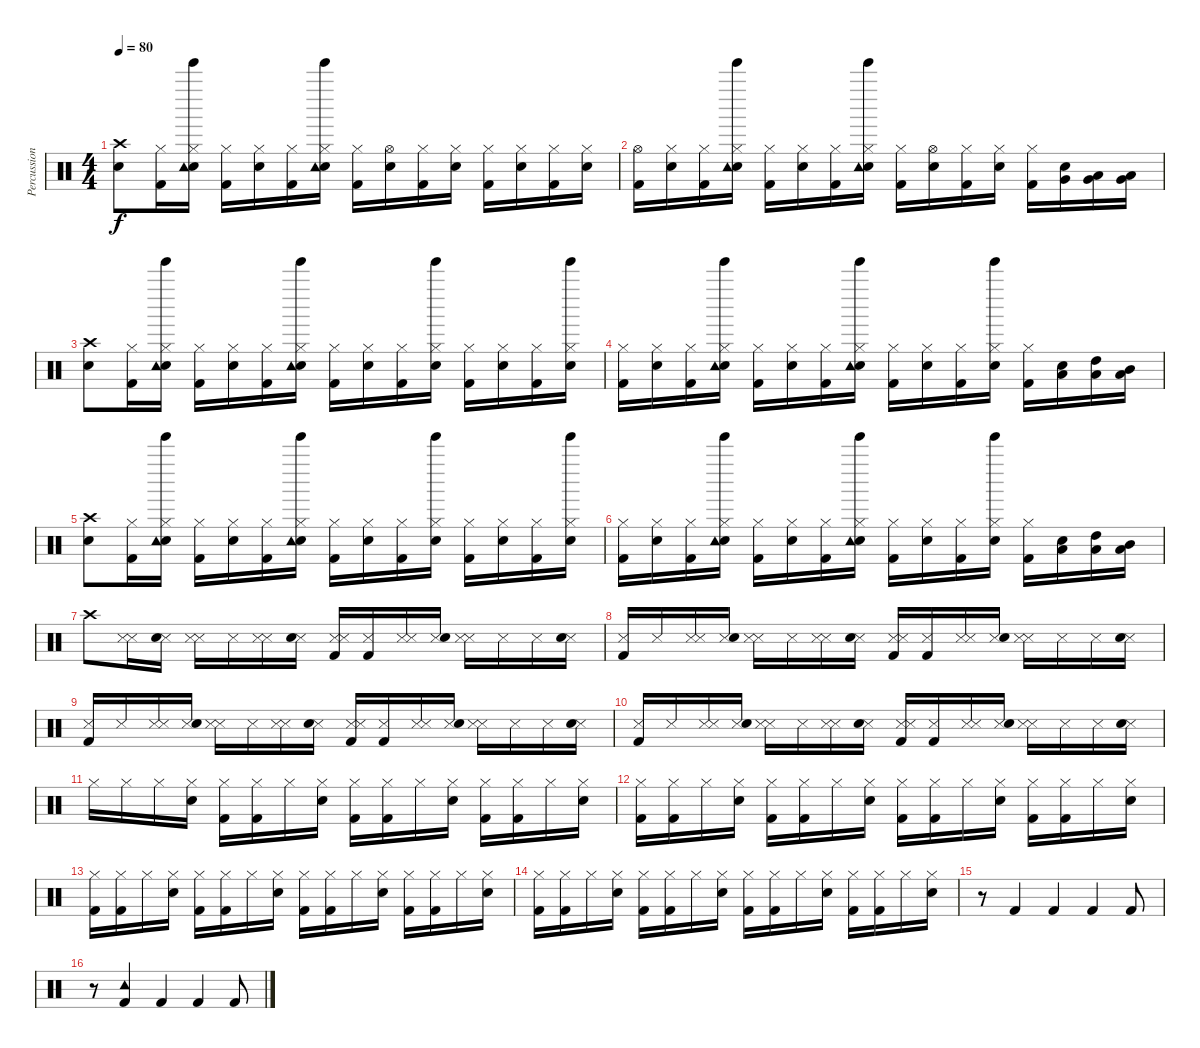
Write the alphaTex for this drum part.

\track ("Percussion" "Percussion") {instrument percussion}
\staff {score}
\articulation defaults
\ts (4 4)
\tempo 80
\clef neutral
\ks c
("Crash high (hit)" "Snare (hit) 2").8{dy f} ("Kick (hit) 2" "Hi-Hat (closed)").16 ("Snare (hit) 2" "Hi-Hat (closed)" "Tambourine (hit)" "Tinkle Bell (hit)").16 ("Kick (hit) 2" "Hi-Hat (closed)").16 ("Snare (hit) 2" "Hi-Hat (closed)").16 ("Kick (hit) 2" "Hi-Hat (closed)").16 ("Snare (hit) 2" "Hi-Hat (closed)" "Tambourine (hit)" "Tinkle Bell (hit)").16 ("Kick (hit) 2" "Hi-Hat (closed)").16 ("Snare (hit) 2" "Hi-Hat (open)").16 ("Kick (hit) 2" "Hi-Hat (closed)").16 ("Snare (hit) 2" "Hi-Hat (closed)").16 ("Kick (hit) 2" "Hi-Hat (closed)").16 ("Snare (hit) 2" "Hi-Hat (closed)").16 ("Kick (hit) 2" "Hi-Hat (closed)").16 ("Snare (hit) 2" "Hi-Hat (closed)").16 |
("Kick (hit) 2" "Hi-Hat (open)").16 ("Hi-Hat (closed)" "Snare (hit) 2").16 ("Kick (hit) 2" "Hi-Hat (closed)").16 ("Snare (hit) 2" "Hi-Hat (closed)" "Tambourine (hit)" "Tinkle Bell (hit)").16 ("Kick (hit) 2" "Hi-Hat (closed)").16 ("Snare (hit) 2" "Hi-Hat (closed)").16 ("Kick (hit) 2" "Hi-Hat (closed)").16 ("Snare (hit) 2" "Hi-Hat (closed)" "Tambourine (hit)" "Tinkle Bell (hit)").16 ("Kick (hit) 2" "Hi-Hat (closed)").16 ("Snare (hit) 2" "Hi-Hat (open)").16 ("Kick (hit) 2" "Hi-Hat (closed)").16 ("Snare (hit) 2" "Hi-Hat (closed)").16 ("Kick (hit) 2" "Hi-Hat (closed)").16 ("Snare (hit) 2" "Very Low Tom (hit)").16 ("Low Floor Tom (hit)" "Very Low Tom (hit)").16 ("Low Floor Tom (hit)" "Very Low Tom (hit)").16 |
("Crash high (hit)" "Snare (hit) 2").8 ("Kick (hit) 2" "Hi-Hat (closed)").16 ("Snare (hit) 2" "Hi-Hat (closed)" "Tambourine (hit)" "Tinkle Bell (hit)").16 ("Kick (hit) 2" "Hi-Hat (closed)").16 ("Snare (hit) 2" "Hi-Hat (closed)").16 ("Kick (hit) 2" "Hi-Hat (closed)").16 ("Snare (hit) 2" "Hi-Hat (closed)" "Tambourine (hit)" "Tinkle Bell (hit)").16 ("Kick (hit) 2" "Hi-Hat (closed)").16 ("Snare (hit) 2" "Hi-Hat (closed)").16 ("Kick (hit) 2" "Hi-Hat (closed)").16 ("Snare (hit) 2" "Hi-Hat (closed)" "Tinkle Bell (hit)").16 ("Kick (hit) 2" "Hi-Hat (closed)").16 ("Snare (hit) 2" "Hi-Hat (closed)").16 ("Kick (hit) 2" "Hi-Hat (closed)").16 ("Snare (hit) 2" "Hi-Hat (closed)" "Tinkle Bell (hit)").16 |
("Kick (hit) 2" "Hi-Hat (closed)").16 ("Hi-Hat (closed)" "Snare (hit) 2").16 ("Kick (hit) 2" "Hi-Hat (closed)").16 ("Snare (hit) 2" "Hi-Hat (closed)" "Tambourine (hit)" "Tinkle Bell (hit)").16 ("Kick (hit) 2" "Hi-Hat (closed)").16 ("Snare (hit) 2" "Hi-Hat (closed)").16 ("Kick (hit) 2" "Hi-Hat (closed)").16 ("Snare (hit) 2" "Hi-Hat (closed)" "Tambourine (hit)" "Tinkle Bell (hit)").16 ("Kick (hit) 2" "Hi-Hat (closed)").16 ("Snare (hit) 2" "Hi-Hat (closed)").16 ("Kick (hit) 2" "Hi-Hat (closed)").16 ("Snare (hit) 2" "Hi-Hat (closed)" "Tinkle Bell (hit)").16 ("Kick (hit) 2" "Hi-Hat (closed)").16 ("Snare (hit) 2" "Low Floor Tom (hit)").16 ("Low Floor Tom (hit)" "High Tom (hit)").16 ("Low Floor Tom (hit)" "Mid Tom (hit)").16 |
("Crash high (hit)" "Snare (hit) 2").8 ("Kick (hit) 2" "Hi-Hat (closed)").16 ("Snare (hit) 2" "Hi-Hat (closed)" "Tambourine (hit)" "Tinkle Bell (hit)").16 ("Kick (hit) 2" "Hi-Hat (closed)").16 ("Snare (hit) 2" "Hi-Hat (closed)").16 ("Kick (hit) 2" "Hi-Hat (closed)").16 ("Snare (hit) 2" "Hi-Hat (closed)" "Tambourine (hit)" "Tinkle Bell (hit)").16 ("Kick (hit) 2" "Hi-Hat (closed)").16 ("Snare (hit) 2" "Hi-Hat (closed)").16 ("Kick (hit) 2" "Hi-Hat (closed)").16 ("Snare (hit) 2" "Hi-Hat (closed)" "Tinkle Bell (hit)").16 ("Kick (hit) 2" "Hi-Hat (closed)").16 ("Snare (hit) 2" "Hi-Hat (closed)").16 ("Kick (hit) 2" "Hi-Hat (closed)").16 ("Snare (hit) 2" "Hi-Hat (closed)" "Tinkle Bell (hit)").16 |
("Kick (hit) 2" "Hi-Hat (closed)").16 ("Hi-Hat (closed)" "Snare (hit) 2").16 ("Kick (hit) 2" "Hi-Hat (closed)").16 ("Snare (hit) 2" "Hi-Hat (closed)" "Tambourine (hit)" "Tinkle Bell (hit)").16 ("Kick (hit) 2" "Hi-Hat (closed)").16 ("Snare (hit) 2" "Hi-Hat (closed)").16 ("Kick (hit) 2" "Hi-Hat (closed)").16 ("Snare (hit) 2" "Hi-Hat (closed)" "Tambourine (hit)" "Tinkle Bell (hit)").16 ("Kick (hit) 2" "Hi-Hat (closed)").16 ("Snare (hit) 2" "Hi-Hat (closed)").16 ("Kick (hit) 2" "Hi-Hat (closed)").16 ("Snare (hit) 2" "Hi-Hat (closed)" "Tinkle Bell (hit)").16 ("Kick (hit) 2" "Hi-Hat (closed)").16 ("Snare (hit) 2" "Low Floor Tom (hit)").16 ("Low Floor Tom (hit)" "High Tom (hit)").16 ("Low Floor Tom (hit)" "Mid Tom (hit)").16 |
"Crash high (hit)".8 ("Snare (side stick) 3" "Snare (side stick) 3").16 ("Snare (side stick) 3" "Snare (hit) 2").16 ("Snare (side stick) 3" "Snare (side stick) 3").16 "Snare (side stick) 3".16 ("Snare (side stick) 3" "Snare (side stick) 3").16 ("Snare (side stick) 3" "Snare (hit) 2").16 ("Kick (hit) 2" "Snare (side stick) 3" "Snare (side stick) 3").16 ("Kick (hit) 2" "Snare (side stick) 3").16 ("Snare (side stick) 3" "Snare (side stick) 3").16 ("Snare (side stick) 3" "Snare (hit) 2").16 ("Snare (side stick) 3" "Snare (side stick) 3").16 "Snare (side stick) 3".16 "Snare (side stick) 3".16 ("Snare (side stick) 3" "Snare (hit) 2").16 |
("Kick (hit) 2" "Snare (side stick) 3").16 "Snare (side stick) 3".16 ("Snare (side stick) 3" "Snare (side stick) 3").16 ("Snare (side stick) 3" "Snare (hit) 2").16 ("Snare (side stick) 3" "Snare (side stick) 3").16 "Snare (side stick) 3".16 ("Snare (side stick) 3" "Snare (side stick) 3").16 ("Snare (side stick) 3" "Snare (hit) 2").16 ("Kick (hit) 2" "Snare (side stick) 3" "Snare (side stick) 3").16 ("Kick (hit) 2" "Snare (side stick) 3").16 ("Snare (side stick) 3" "Snare (side stick) 3").16 ("Snare (side stick) 3" "Snare (hit) 2").16 ("Snare (side stick) 3" "Snare (side stick) 3").16 "Snare (side stick) 3".16 "Snare (side stick) 3".16 ("Snare (side stick) 3" "Snare (hit) 2").16 |
("Kick (hit) 2" "Snare (side stick) 3").16 "Snare (side stick) 3".16 ("Snare (side stick) 3" "Snare (side stick) 3").16 ("Snare (side stick) 3" "Snare (hit) 2").16 ("Snare (side stick) 3" "Snare (side stick) 3").16 "Snare (side stick) 3".16 ("Snare (side stick) 3" "Snare (side stick) 3").16 ("Snare (side stick) 3" "Snare (hit) 2").16 ("Kick (hit) 2" "Snare (side stick) 3" "Snare (side stick) 3").16 ("Kick (hit) 2" "Snare (side stick) 3").16 ("Snare (side stick) 3" "Snare (side stick) 3").16 ("Snare (side stick) 3" "Snare (hit) 2").16 ("Snare (side stick) 3" "Snare (side stick) 3").16 "Snare (side stick) 3".16 "Snare (side stick) 3".16 ("Snare (side stick) 3" "Snare (hit) 2").16 |
("Kick (hit) 2" "Snare (side stick) 3").16 "Snare (side stick) 3".16 ("Snare (side stick) 3" "Snare (side stick) 3").16 ("Snare (side stick) 3" "Snare (hit) 2").16 ("Snare (side stick) 3" "Snare (side stick) 3").16 "Snare (side stick) 3".16 ("Snare (side stick) 3" "Snare (side stick) 3").16 ("Snare (side stick) 3" "Snare (hit) 2").16 ("Kick (hit) 2" "Snare (side stick) 3" "Snare (side stick) 3").16 ("Kick (hit) 2" "Snare (side stick) 3").16 ("Snare (side stick) 3" "Snare (side stick) 3").16 ("Snare (side stick) 3" "Snare (hit) 2").16 ("Snare (side stick) 3" "Snare (side stick) 3").16 "Snare (side stick) 3".16 "Snare (side stick) 3".16 ("Snare (side stick) 3" "Snare (hit) 2").16 |
"Hi-Hat (closed)".16 "Hi-Hat (closed)".16 "Hi-Hat (closed)".16 ("Hi-Hat (closed)" "Snare (hit) 2").16 ("Kick (hit) 2" "Hi-Hat (closed)").16 ("Kick (hit) 2" "Hi-Hat (closed)").16 "Hi-Hat (closed)".16 ("Hi-Hat (closed)" "Snare (hit) 2").16 ("Kick (hit) 2" "Hi-Hat (closed)").16 ("Kick (hit) 2" "Hi-Hat (closed)").16 "Hi-Hat (closed)".16 ("Hi-Hat (closed)" "Snare (hit) 2").16 ("Kick (hit) 2" "Hi-Hat (closed)").16 ("Kick (hit) 2" "Hi-Hat (closed)").16 "Hi-Hat (closed)".16 ("Hi-Hat (closed)" "Snare (hit) 2").16 |
("Kick (hit) 2" "Hi-Hat (closed)").16 ("Kick (hit) 2" "Hi-Hat (closed)").16 "Hi-Hat (closed)".16 ("Hi-Hat (closed)" "Snare (hit) 2").16 ("Kick (hit) 2" "Hi-Hat (closed)").16 ("Kick (hit) 2" "Hi-Hat (closed)").16 "Hi-Hat (closed)".16 ("Hi-Hat (closed)" "Snare (hit) 2").16 ("Kick (hit) 2" "Hi-Hat (closed)").16 ("Kick (hit) 2" "Hi-Hat (closed)").16 "Hi-Hat (closed)".16 ("Hi-Hat (closed)" "Snare (hit) 2").16 ("Kick (hit) 2" "Hi-Hat (closed)").16 ("Kick (hit) 2" "Hi-Hat (closed)").16 "Hi-Hat (closed)".16 ("Hi-Hat (closed)" "Snare (hit) 2").16 |
("Kick (hit) 2" "Hi-Hat (closed)").16 ("Kick (hit) 2" "Hi-Hat (closed)").16 "Hi-Hat (closed)".16 ("Hi-Hat (closed)" "Snare (hit) 2").16 ("Kick (hit) 2" "Hi-Hat (closed)").16 ("Kick (hit) 2" "Hi-Hat (closed)").16 "Hi-Hat (closed)".16 ("Hi-Hat (closed)" "Snare (hit) 2").16 ("Kick (hit) 2" "Hi-Hat (closed)").16 ("Kick (hit) 2" "Hi-Hat (closed)").16 "Hi-Hat (closed)".16 ("Hi-Hat (closed)" "Snare (hit) 2").16 ("Kick (hit) 2" "Hi-Hat (closed)").16 ("Kick (hit) 2" "Hi-Hat (closed)").16 "Hi-Hat (closed)".16 ("Hi-Hat (closed)" "Snare (hit) 2").16 |
("Kick (hit) 2" "Hi-Hat (closed)").16 ("Kick (hit) 2" "Hi-Hat (closed)").16 "Hi-Hat (closed)".16 ("Hi-Hat (closed)" "Snare (hit) 2").16 ("Kick (hit) 2" "Hi-Hat (closed)").16 ("Kick (hit) 2" "Hi-Hat (closed)").16 "Hi-Hat (closed)".16 ("Hi-Hat (closed)" "Snare (hit) 2").16 ("Kick (hit) 2" "Hi-Hat (closed)").16 ("Kick (hit) 2" "Hi-Hat (closed)").16 "Hi-Hat (closed)".16 ("Hi-Hat (closed)" "Snare (hit) 2").16 ("Kick (hit) 2" "Hi-Hat (closed)").16 ("Kick (hit) 2" "Hi-Hat (closed)").16 "Hi-Hat (closed)".16 ("Hi-Hat (closed)" "Snare (hit) 2").16 |
r.8 "Kick (hit) 2".4 "Kick (hit) 2".4 "Kick (hit) 2".4 "Kick (hit) 2".8 |
r.8 ("Kick (hit) 2" "Tambourine (hit)").4 "Kick (hit) 2".4 "Kick (hit) 2".4 "Kick (hit) 2".8
